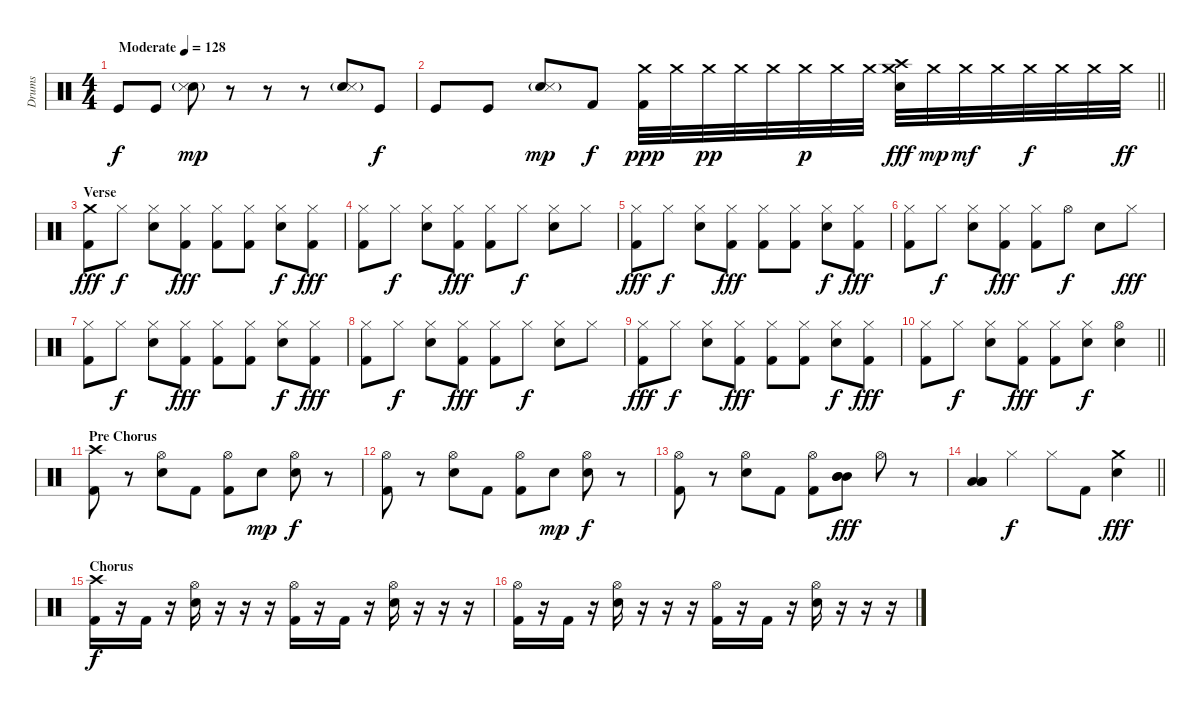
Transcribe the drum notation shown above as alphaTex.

\track ("Drums" "Drums") {instrument percussion}
\staff {score}
\articulation defaults
\ts (4 4)
\tempo (128 "Moderate")
\clef neutral
\ks c "Kick (hit)".8{dy f} "Kick (hit)".8
("Electric Snare (hit)"{g} "Snare (side stick) 3").8{dy mp} r.8 r.8 r.8 ("Electric Snare (hit)"{g} "Snare (side stick) 3").8 "Kick (hit)".8{dy f} |
\barLineRight lightlight "Kick (hit)".8 "Kick (hit)".8
("Electric Snare (hit)"{g} "Snare (side stick) 3").8{dy mp} "Kick (hit) 2".8{dy f} ("Crash medium (hit)" "Kick (hit) 2").32{dy ppp} "Crash medium (hit)".32 "Crash medium (hit)".32{dy pp} "Crash medium (hit)".32 "Crash medium (hit)".32 "Crash medium (hit)".32{dy p} "Crash medium (hit)".32 "Crash medium (hit)".32 ("Crash high (hit)" "Crash medium (hit)" "Electric Snare (hit)").32{dy fff} "Crash medium (hit)".32{dy mp} "Crash medium (hit)".32{dy mf} "Crash medium (hit)".32 "Crash medium (hit)".32{dy f} "Crash medium (hit)".32 "Crash medium (hit)".32 "Crash medium (hit)".32{dy ff} |
\section ("" "Verse")
("Crash medium (hit)" "Kick (hit) 2").8{dy fff} "Hi-Hat (closed)".8{dy f} ("Hi-Hat (closed)" "Electric Snare (hit)").8 ("Hi-Hat (closed)" "Kick (hit) 2").8{dy fff} ("Hi-Hat (closed)" "Kick (hit) 2").8 ("Hi-Hat (closed)" "Kick (hit) 2").8 ("Hi-Hat (closed)" "Electric Snare (hit)").8{dy f} ("Hi-Hat (closed)" "Kick (hit) 2").8{dy fff} |
("Hi-Hat (closed)" "Kick (hit) 2").8 "Hi-Hat (closed)".8{dy f} ("Hi-Hat (closed)" "Electric Snare (hit)").8 ("Hi-Hat (closed)" "Kick (hit) 2").8{dy fff} ("Hi-Hat (closed)" "Kick (hit) 2").8 "Hi-Hat (closed)".8{dy f} ("Hi-Hat (closed)" "Electric Snare (hit)").8 "Hi-Hat (closed)".8 |
("Hi-Hat (closed)" "Kick (hit) 2").8{dy fff} "Hi-Hat (closed)".8{dy f} ("Hi-Hat (closed)" "Electric Snare (hit)").8 ("Hi-Hat (closed)" "Kick (hit) 2").8{dy fff} ("Hi-Hat (closed)" "Kick (hit) 2").8 ("Hi-Hat (closed)" "Kick (hit) 2").8 ("Hi-Hat (closed)" "Electric Snare (hit)").8{dy f} ("Hi-Hat (closed)" "Kick (hit) 2").8{dy fff} |
("Hi-Hat (closed)" "Kick (hit) 2").8 "Hi-Hat (closed)".8{dy f} ("Hi-Hat (closed)" "Electric Snare (hit)").8 ("Hi-Hat (closed)" "Kick (hit) 2").8{dy fff} ("Hi-Hat (closed)" "Kick (hit) 2").8 "Hi-Hat (open)".8{dy f} "Electric Snare (hit)".8 "Hi-Hat (closed)".8{dy fff} |
("Hi-Hat (closed)" "Kick (hit) 2").8 "Hi-Hat (closed)".8{dy f} ("Hi-Hat (closed)" "Electric Snare (hit)").8 ("Hi-Hat (closed)" "Kick (hit) 2").8{dy fff} ("Hi-Hat (closed)" "Kick (hit) 2").8 ("Hi-Hat (closed)" "Kick (hit) 2").8 ("Hi-Hat (closed)" "Electric Snare (hit)").8{dy f} ("Hi-Hat (closed)" "Kick (hit) 2").8{dy fff} |
("Hi-Hat (closed)" "Kick (hit) 2").8 "Hi-Hat (closed)".8{dy f} ("Hi-Hat (closed)" "Electric Snare (hit)").8 ("Hi-Hat (closed)" "Kick (hit) 2").8{dy fff} ("Hi-Hat (closed)" "Kick (hit) 2").8 "Hi-Hat (closed)".8{dy f} ("Hi-Hat (closed)" "Electric Snare (hit)").8 "Hi-Hat (closed)".8 |
("Hi-Hat (closed)" "Kick (hit) 2").8{dy fff} "Hi-Hat (closed)".8{dy f} ("Hi-Hat (closed)" "Electric Snare (hit)").8 ("Hi-Hat (closed)" "Kick (hit) 2").8{dy fff} ("Hi-Hat (closed)" "Kick (hit) 2").8 ("Hi-Hat (closed)" "Kick (hit) 2").8 ("Hi-Hat (closed)" "Electric Snare (hit)").8{dy f} ("Hi-Hat (closed)" "Kick (hit) 2").8{dy fff} |
\barLineRight lightlight
("Hi-Hat (closed)" "Kick (hit) 2").8 "Hi-Hat (closed)".8{dy f} ("Hi-Hat (closed)" "Electric Snare (hit)").8 ("Hi-Hat (closed)" "Kick (hit) 2").8{dy fff} ("Hi-Hat (closed)" "Kick (hit) 2").8 ("Hi-Hat (closed)" "Electric Snare (hit)").8{dy f} ("Hi-Hat (open)" "Electric Snare (hit)").4 |
\section ("" "Pre Chorus")
("Crash high (hit)" "Kick (hit) 2").8 r.8 ("Hi-Hat (open)" "Electric Snare (hit)").8 "Kick (hit) 2".8 ("Hi-Hat (open)" "Kick (hit) 2").8 "Electric Snare (hit)".8{dy mp} ("Hi-Hat (open)" "Electric Snare (hit)").8{dy f} r.8 |
("Hi-Hat (open)" "Kick (hit) 2").8 r.8 ("Hi-Hat (open)" "Electric Snare (hit)").8 "Kick (hit) 2".8 ("Hi-Hat (open)" "Kick (hit) 2").8 "Electric Snare (hit)".8{dy mp} ("Hi-Hat (open)" "Electric Snare (hit)").8{dy f} r.8 |
("Hi-Hat (open)" "Kick (hit) 2").8 r.8 ("Hi-Hat (open)" "Electric Snare (hit)").8 "Kick (hit) 2".8 ("Hi-Hat (open)" "Kick (hit) 2").8 ("Mid Tom (hit)" "Mid Tom (hit)" "Mid Tom (hit)").8{dy fff} "Hi-Hat (open)".8 r.8 |
\barLineRight lightlight
("Low Tom (hit)" "Low Tom (hit)" "Low Tom (hit)").4 "Hi-Hat (closed)".4{dy f} "Hi-Hat (closed)".8 "Kick (hit) 2".8 ("Crash medium (hit)" "Electric Snare (hit)").4{dy fff} |
\section ("" "Chorus")
("Crash high (hit)" "Kick (hit) 2").16{dy f} r.16 "Kick (hit) 2".16 r.16 ("Hi-Hat (open)" "Electric Snare (hit)").16 r.16 r.16 r.16 ("Hi-Hat (open)" "Kick (hit) 2").16 r.16 "Kick (hit) 2".16 r.16 ("Hi-Hat (open)" "Electric Snare (hit)").16 r.16 r.16 r.16 |
("Hi-Hat (open)" "Kick (hit) 2").16 r.16 "Kick (hit) 2".16 r.16 ("Hi-Hat (open)" "Electric Snare (hit)").16 r.16 r.16 r.16 ("Hi-Hat (open)" "Kick (hit) 2").16 r.16 "Kick (hit) 2".16 r.16 ("Hi-Hat (open)" "Electric Snare (hit)").16 r.16 r.16 r.16
